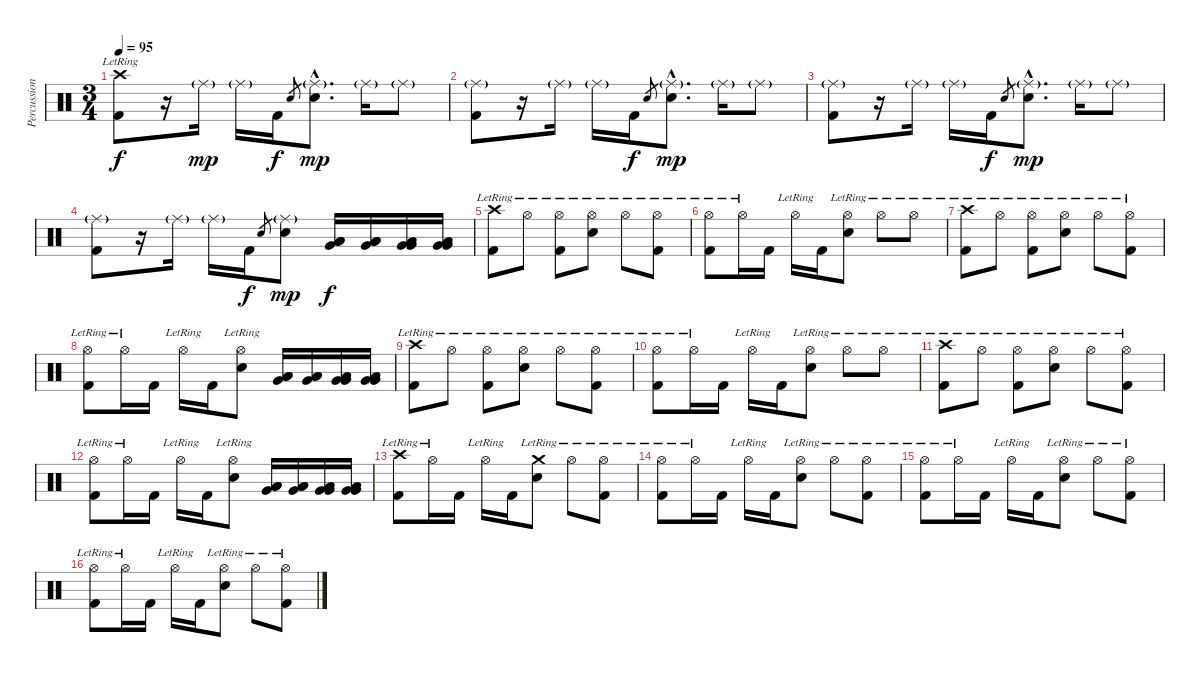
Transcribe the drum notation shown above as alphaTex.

\track ("Percussion I" "Percussion") {instrument percussion}
\staff {score}
\articulation defaults
\ts (3 4)
\tempo 95
\clef neutral
\ks c
("Crash high (hit)"{lr} "Kick (hit) 2").8{dy f} r.16 "Ride (middle)"{g}.16{dy mp} "Ride (middle)"{g}.16 "Kick (hit) 2".16{dy f} "Electric Snare (hit)".8{gr} ("Ride (middle)"{g hac} "Electric Snare (hit)"{hac}).8{d dy mp} "Ride (middle)"{g}.16 "Ride (middle)"{g}.8 |
("Ride (middle)"{g} "Kick (hit) 2").8 r.16 "Ride (middle)"{g}.16 "Ride (middle)"{g}.16 "Kick (hit) 2".16{dy f} "Electric Snare (hit)".8{gr} ("Ride (middle)"{g hac} "Electric Snare (hit)"{hac}).8{d dy mp} "Ride (middle)"{g}.16 "Ride (middle)"{g}.8 |
("Ride (middle)"{g} "Kick (hit) 2").8 r.16 "Ride (middle)"{g}.16 "Ride (middle)"{g}.16 "Kick (hit) 2".16{dy f} "Electric Snare (hit)".8{gr} ("Ride (middle)"{g hac} "Electric Snare (hit)"{hac}).8{d dy mp} "Ride (middle)"{g}.16 "Ride (middle)"{g}.8 |
("Ride (middle)"{g} "Kick (hit) 2").8 r.16 "Ride (middle)"{g}.16 "Ride (middle)"{g}.16 "Kick (hit) 2".16{dy f} "Electric Snare (hit)".8{gr} ("Ride (middle)"{g} "Electric Snare (hit)").8{dy mp} ("Low Tom (hit)" "Low Tom (hit)" "Very Low Tom (hit)").16{dy f} ("Low Tom (hit)" "Low Tom (hit)" "Very Low Tom (hit)").16 ("Very Low Tom (hit)" "Very Low Tom (hit)" "Low Floor Tom (hit)").16 ("Very Low Tom (hit)" "Very Low Tom (hit)" "Low Floor Tom (hit)").16 |
("Crash high (hit)"{lr} "Kick (hit) 2").8 "Hi-Hat (open)"{lr}.8 ("Hi-Hat (open)"{lr} "Kick (hit) 2").8 ("Hi-Hat (open)"{lr} "Electric Snare (hit)").8 "Hi-Hat (open)"{lr}.8 ("Hi-Hat (open)"{lr} "Kick (hit) 2").8 |
("Hi-Hat (open)"{lr} "Kick (hit) 2").8 "Hi-Hat (open)"{lr}.16 "Kick (hit) 2".16 "Hi-Hat (open)"{lr}.16 "Kick (hit) 2".16 ("Hi-Hat (open)"{lr} "Electric Snare (hit)").8 "Hi-Hat (open)"{lr}.8 "Hi-Hat (open)"{lr}.8 |
("Crash high (hit)"{lr} "Kick (hit) 2").8 "Hi-Hat (open)"{lr}.8 ("Hi-Hat (open)"{lr} "Kick (hit) 2").8 ("Hi-Hat (open)"{lr} "Electric Snare (hit)").8 "Hi-Hat (open)"{lr}.8 ("Hi-Hat (open)"{lr} "Kick (hit) 2").8 |
("Hi-Hat (open)"{lr} "Kick (hit) 2").8 "Hi-Hat (open)"{lr}.16 "Kick (hit) 2".16 "Hi-Hat (open)"{lr}.16 "Kick (hit) 2".16 ("Hi-Hat (open)"{lr} "Electric Snare (hit)").8 ("Low Tom (hit)" "Low Tom (hit)" "Very Low Tom (hit)").16 ("Low Tom (hit)" "Low Tom (hit)" "Very Low Tom (hit)").16 ("Very Low Tom (hit)" "Very Low Tom (hit)" "Low Floor Tom (hit)").16 ("Very Low Tom (hit)" "Very Low Tom (hit)" "Low Floor Tom (hit)").16 |
("Crash high (hit)"{lr} "Kick (hit) 2").8 "Hi-Hat (open)"{lr}.8 ("Hi-Hat (open)"{lr} "Kick (hit) 2").8 ("Hi-Hat (open)"{lr} "Electric Snare (hit)").8 "Hi-Hat (open)"{lr}.8 ("Hi-Hat (open)"{lr} "Kick (hit) 2").8 |
("Hi-Hat (open)"{lr} "Kick (hit) 2").8 "Hi-Hat (open)"{lr}.16 "Kick (hit) 2".16 "Hi-Hat (open)"{lr}.16 "Kick (hit) 2".16 ("Hi-Hat (open)"{lr} "Electric Snare (hit)").8 "Hi-Hat (open)"{lr}.8 "Hi-Hat (open)"{lr}.8 |
("Crash high (hit)"{lr} "Kick (hit) 2").8 "Hi-Hat (open)"{lr}.8 ("Hi-Hat (open)"{lr} "Kick (hit) 2").8 ("Hi-Hat (open)"{lr} "Electric Snare (hit)").8 "Hi-Hat (open)"{lr}.8 ("Hi-Hat (open)"{lr} "Kick (hit) 2").8 |
("Hi-Hat (open)"{lr} "Kick (hit) 2").8 "Hi-Hat (open)"{lr}.16 "Kick (hit) 2".16 "Hi-Hat (open)"{lr}.16 "Kick (hit) 2".16 ("Hi-Hat (open)"{lr} "Electric Snare (hit)").8 ("Low Tom (hit)" "Low Tom (hit)" "Very Low Tom (hit)").16 ("Low Tom (hit)" "Low Tom (hit)" "Very Low Tom (hit)").16 ("Very Low Tom (hit)" "Very Low Tom (hit)" "Low Floor Tom (hit)").16 ("Very Low Tom (hit)" "Very Low Tom (hit)" "Low Floor Tom (hit)").16 |
("Crash high (hit)"{lr} "Kick (hit) 2").8 "Hi-Hat (open)"{lr}.16 "Kick (hit) 2".16 "Hi-Hat (open)"{lr}.16 "Kick (hit) 2".16 ("Crash medium (hit)"{lr} "Electric Snare (hit)").8 "Hi-Hat (open)"{lr}.8 ("Hi-Hat (open)"{lr} "Kick (hit) 2").8 |
("Hi-Hat (open)"{lr} "Kick (hit) 2").8 "Hi-Hat (open)"{lr}.16 "Kick (hit) 2".16 "Hi-Hat (open)"{lr}.16 "Kick (hit) 2".16 ("Hi-Hat (open)"{lr} "Electric Snare (hit)").8 "Hi-Hat (open)"{lr}.8 ("Hi-Hat (open)"{lr} "Kick (hit) 2").8 |
("Hi-Hat (open)"{lr} "Kick (hit) 2").8 "Hi-Hat (open)"{lr}.16 "Kick (hit) 2".16 "Hi-Hat (open)"{lr}.16 "Kick (hit) 2".16 ("Hi-Hat (open)"{lr} "Electric Snare (hit)").8 "Hi-Hat (open)"{lr}.8 ("Hi-Hat (open)"{lr} "Kick (hit) 2").8 |
("Hi-Hat (open)"{lr} "Kick (hit) 2").8 "Hi-Hat (open)"{lr}.16 "Kick (hit) 2".16 "Hi-Hat (open)"{lr}.16 "Kick (hit) 2".16 ("Hi-Hat (open)"{lr} "Electric Snare (hit)").8 "Hi-Hat (open)"{lr}.8 ("Hi-Hat (open)"{lr} "Kick (hit) 2").8
